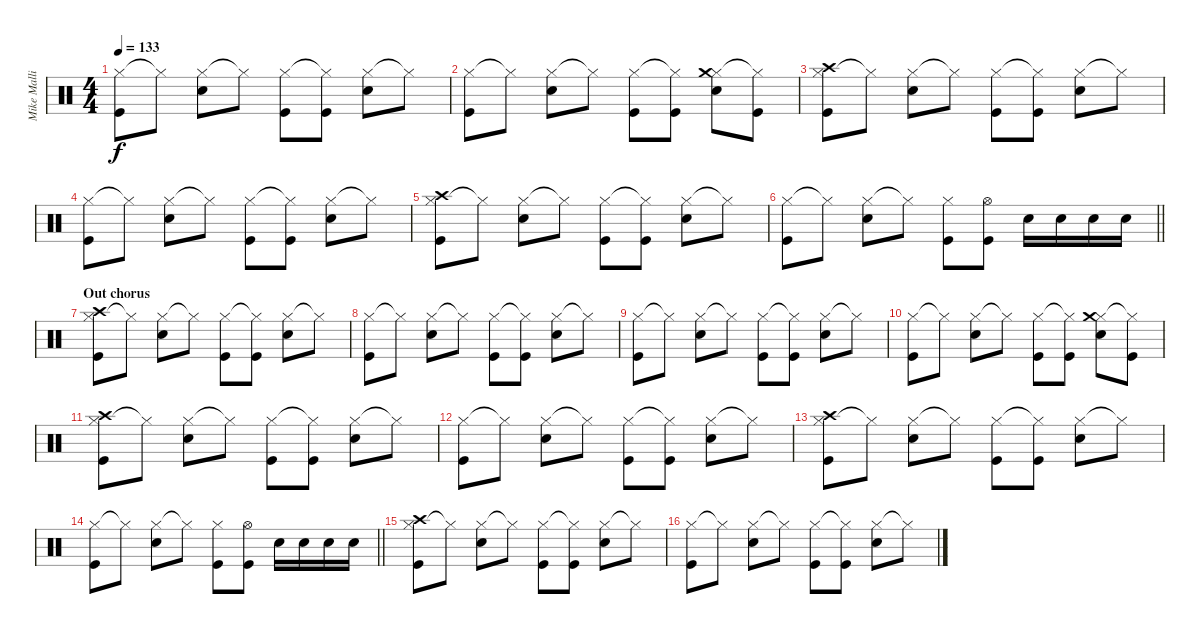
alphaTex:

\track ("Mike Mallinin" "Mike Malli") {instrument percussion}
\staff {score}
\articulation defaults
\ts (4 4)
\tempo 133
\clef neutral
\ks c
("Hi-Hat (closed)" "Kick (hit)").8{dy f} "Hi-Hat (closed)"{t}.8 ("Hi-Hat (closed)" "Snare (hit) 2").8 "Hi-Hat (closed)"{t}.8 ("Hi-Hat (closed)" "Kick (hit)").8 ("Hi-Hat (closed)"{t} "Kick (hit)").8 ("Hi-Hat (closed)" "Snare (hit) 2").8 "Hi-Hat (closed)"{t}.8 |
("Hi-Hat (closed)" "Kick (hit)").8 "Hi-Hat (closed)"{t}.8 ("Hi-Hat (closed)" "Snare (hit) 2").8 "Hi-Hat (closed)"{t}.8 ("Hi-Hat (closed)" "Kick (hit)").8 ("Hi-Hat (closed)"{t} "Kick (hit)").8 ("Hi-Hat (closed)" "Crash medium (hit)" "Snare (hit) 2").8 ("Hi-Hat (closed)"{t} "Kick (hit)").8 |
("Hi-Hat (closed)" "Crash high (hit)" "Kick (hit)").8 "Hi-Hat (closed)"{t}.8 ("Hi-Hat (closed)" "Snare (hit) 2").8 "Hi-Hat (closed)"{t}.8 ("Hi-Hat (closed)" "Kick (hit)").8 ("Hi-Hat (closed)"{t} "Kick (hit)").8 ("Hi-Hat (closed)" "Snare (hit) 2").8 "Hi-Hat (closed)"{t}.8 |
("Hi-Hat (closed)" "Kick (hit)").8 "Hi-Hat (closed)"{t}.8 ("Hi-Hat (closed)" "Snare (hit) 2").8 "Hi-Hat (closed)"{t}.8 ("Hi-Hat (closed)" "Kick (hit)").8 ("Hi-Hat (closed)"{t} "Kick (hit)").8 ("Hi-Hat (closed)" "Snare (hit) 2").8 "Hi-Hat (closed)"{t}.8 |
("Hi-Hat (closed)" "Crash high (hit)" "Kick (hit)").8 "Hi-Hat (closed)"{t}.8 ("Hi-Hat (closed)" "Snare (hit) 2").8 "Hi-Hat (closed)"{t}.8 ("Hi-Hat (closed)" "Kick (hit)").8 ("Hi-Hat (closed)"{t} "Kick (hit)").8 ("Hi-Hat (closed)" "Snare (hit) 2").8 "Hi-Hat (closed)"{t}.8 |
\barLineRight lightlight
("Hi-Hat (closed)" "Kick (hit)").8 "Hi-Hat (closed)"{t}.8 ("Hi-Hat (closed)" "Snare (hit) 2").8 "Hi-Hat (closed)"{t}.8 ("Hi-Hat (closed)" "Kick (hit)").8 ("Hi-Hat (open)" "Kick (hit)").8 "Snare (hit) 2".16 "Snare (hit) 2".16 "Snare (hit) 2".16 "Snare (hit) 2".16 |
\section ("" "Out chorus")
("Hi-Hat (closed)" "Crash high (hit)" "Kick (hit)").8 "Hi-Hat (closed)"{t}.8 ("Hi-Hat (closed)" "Snare (hit) 2").8 "Hi-Hat (closed)"{t}.8 ("Hi-Hat (closed)" "Kick (hit)").8 ("Hi-Hat (closed)"{t} "Kick (hit)").8 ("Hi-Hat (closed)" "Snare (hit) 2").8 "Hi-Hat (closed)"{t}.8 |
("Hi-Hat (closed)" "Kick (hit)").8 "Hi-Hat (closed)"{t}.8 ("Hi-Hat (closed)" "Snare (hit) 2").8 "Hi-Hat (closed)"{t}.8 ("Hi-Hat (closed)" "Kick (hit)").8 ("Hi-Hat (closed)"{t} "Kick (hit)").8 ("Hi-Hat (closed)" "Snare (hit) 2").8 "Hi-Hat (closed)"{t}.8 |
("Hi-Hat (closed)" "Kick (hit)").8 "Hi-Hat (closed)"{t}.8 ("Hi-Hat (closed)" "Snare (hit) 2").8 "Hi-Hat (closed)"{t}.8 ("Hi-Hat (closed)" "Kick (hit)").8 ("Hi-Hat (closed)"{t} "Kick (hit)").8 ("Hi-Hat (closed)" "Snare (hit) 2").8 "Hi-Hat (closed)"{t}.8 |
("Hi-Hat (closed)" "Kick (hit)").8 "Hi-Hat (closed)"{t}.8 ("Hi-Hat (closed)" "Snare (hit) 2").8 "Hi-Hat (closed)"{t}.8 ("Hi-Hat (closed)" "Kick (hit)").8 ("Hi-Hat (closed)"{t} "Kick (hit)").8 ("Hi-Hat (closed)" "Crash medium (hit)" "Snare (hit) 2").8 ("Hi-Hat (closed)"{t} "Kick (hit)").8 |
("Hi-Hat (closed)" "Crash high (hit)" "Kick (hit)").8 "Hi-Hat (closed)"{t}.8 ("Hi-Hat (closed)" "Snare (hit) 2").8 "Hi-Hat (closed)"{t}.8 ("Hi-Hat (closed)" "Kick (hit)").8 ("Hi-Hat (closed)"{t} "Kick (hit)").8 ("Hi-Hat (closed)" "Snare (hit) 2").8 "Hi-Hat (closed)"{t}.8 |
("Hi-Hat (closed)" "Kick (hit)").8 "Hi-Hat (closed)"{t}.8 ("Hi-Hat (closed)" "Snare (hit) 2").8 "Hi-Hat (closed)"{t}.8 ("Hi-Hat (closed)" "Kick (hit)").8 ("Hi-Hat (closed)"{t} "Kick (hit)").8 ("Hi-Hat (closed)" "Snare (hit) 2").8 "Hi-Hat (closed)"{t}.8 |
("Hi-Hat (closed)" "Crash high (hit)" "Kick (hit)").8 "Hi-Hat (closed)"{t}.8 ("Hi-Hat (closed)" "Snare (hit) 2").8 "Hi-Hat (closed)"{t}.8 ("Hi-Hat (closed)" "Kick (hit)").8 ("Hi-Hat (closed)"{t} "Kick (hit)").8 ("Hi-Hat (closed)" "Snare (hit) 2").8 "Hi-Hat (closed)"{t}.8 |
\barLineRight lightlight
("Hi-Hat (closed)" "Kick (hit)").8 "Hi-Hat (closed)"{t}.8 ("Hi-Hat (closed)" "Snare (hit) 2").8 "Hi-Hat (closed)"{t}.8 ("Hi-Hat (closed)" "Kick (hit)").8 ("Hi-Hat (open)" "Kick (hit)").8 "Snare (hit) 2".16 "Snare (hit) 2".16 "Snare (hit) 2".16 "Snare (hit) 2".16 |
("Hi-Hat (closed)" "Crash high (hit)" "Kick (hit)").8 "Hi-Hat (closed)"{t}.8 ("Hi-Hat (closed)" "Snare (hit) 2").8 "Hi-Hat (closed)"{t}.8 ("Hi-Hat (closed)" "Kick (hit)").8 ("Hi-Hat (closed)"{t} "Kick (hit)").8 ("Hi-Hat (closed)" "Snare (hit) 2").8 "Hi-Hat (closed)"{t}.8 |
("Hi-Hat (closed)" "Kick (hit)").8 "Hi-Hat (closed)"{t}.8 ("Hi-Hat (closed)" "Snare (hit) 2").8 "Hi-Hat (closed)"{t}.8 ("Hi-Hat (closed)" "Kick (hit)").8 ("Hi-Hat (closed)"{t} "Kick (hit)").8 ("Hi-Hat (closed)" "Snare (hit) 2").8 "Hi-Hat (closed)"{t}.8
